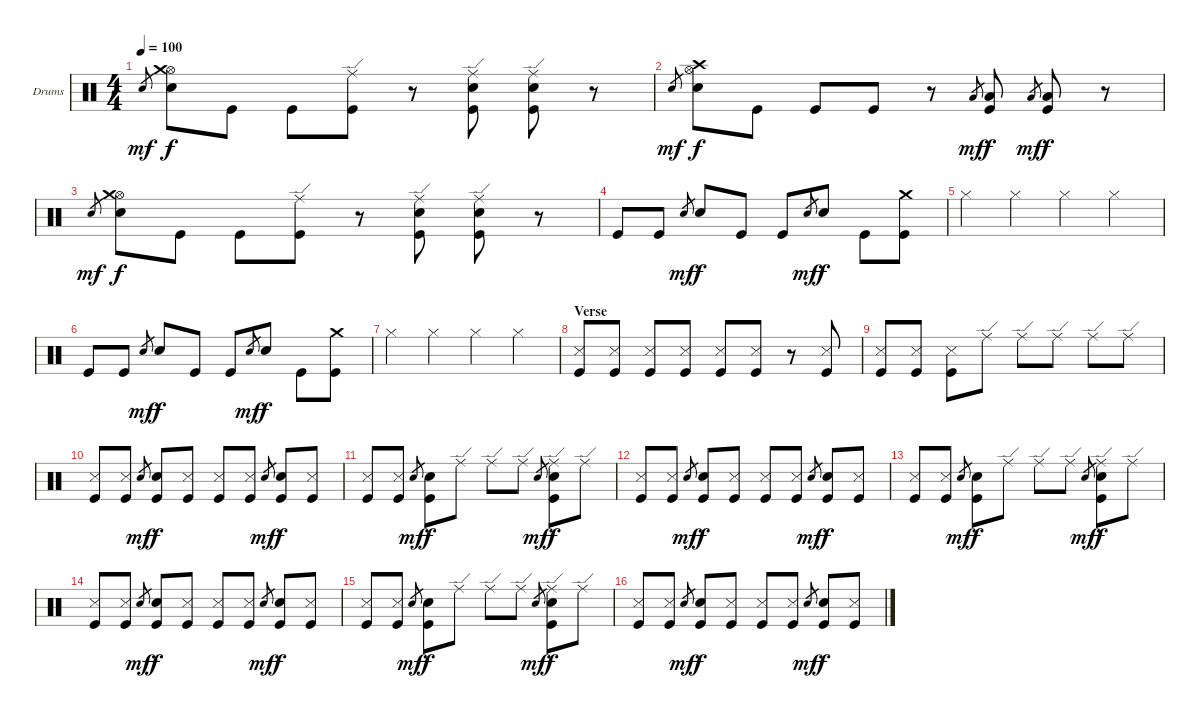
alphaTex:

\defaultSystemsLayout 4
\bracketExtendMode groupsimilarinstruments
\firstSystemTrackNameOrientation horizontal
\otherSystemsTrackNameOrientation horizontal
\track ("Drumkit" "Drums") {instrument percussion}
\staff {score}
\articulation defaults
\ts (4 4)
\tempo 100
\clef neutral
\scale
1.02648
\ks c "Snare (hit) 2".8{gr dy mf}
("Hi-Hat (open)" "Crash medium (hit)" "Snare (hit) 2").8{dy f} "Kick (hit)".8 "Kick (hit)".8 ("Ride (edge)" "Kick (hit)").8 r.8 ("Ride (edge)" "Snare (hit) 2" "Kick (hit)").8 ("Ride (edge)" "Snare (hit) 2" "Kick (hit)").8 r.8 |
\scale
0.973518 "Snare (hit) 2".8{gr dy mf} ("Hi-Hat (open)" "Crash high (hit)" "Snare (hit) 2").8{dy f} "Kick (hit)".8 "Kick (hit)".8 "Kick (hit)".8 r.8 "Low Tom (hit)".8{gr dy mf} ("Low Tom (hit)" "Kick (hit)").8{dy f} "Low Tom (hit)".8{gr dy mf} ("Low Tom (hit)" "Kick (hit)").8{dy f} r.8 |
\scale
1.02648 "Snare (hit) 2".8{gr dy mf} ("Hi-Hat (open)" "Crash medium (hit)" "Snare (hit) 2").8{dy f} "Kick (hit)".8 "Kick (hit)".8 ("Ride (edge)" "Kick (hit)").8 r.8 ("Ride (edge)" "Snare (hit) 2" "Kick (hit)").8 ("Ride (edge)" "Snare (hit) 2" "Kick (hit)").8 r.8 |
\scale
0.973518 "Kick (hit)".8 "Kick (hit)".8 "Snare (hit) 2".8{gr dy mf} "Snare (hit) 2".8{dy f} "Kick (hit)".8 "Kick (hit)".8 "Snare (hit) 2".8{gr dy mf} "Snare (hit) 2".8{dy f} "Kick (hit)".8 ("Crash medium (hit)" "Kick (hit)").8 |
\scale
1.02648 "Hi-Hat (closed)".4 "Hi-Hat (closed)".4 "Hi-Hat (closed)".4 "Hi-Hat (closed)".4 |
\scale
0.973518 "Kick (hit)".8 "Kick (hit)".8 "Snare (hit) 2".8{gr dy mf} "Snare (hit) 2".8{dy f} "Kick (hit)".8 "Kick (hit)".8 "Snare (hit) 2".8{gr dy mf} "Snare (hit) 2".8{dy f} "Kick (hit)".8 ("Crash medium (hit)" "Kick (hit)").8 |
\scale
1.02648 "Hi-Hat (closed)".4 "Hi-Hat (closed)".4 "Hi-Hat (closed)".4 "Hi-Hat (closed)".4 |
\section ("" "Verse")
\scale
0.973518 ("Snare (side stick) 3" "Kick (hit)").8 ("Snare (side stick) 3" "Kick (hit)").8 ("Snare (side stick) 3" "Kick (hit)").8 ("Snare (side stick) 3" "Kick (hit)").8 ("Snare (side stick) 3" "Kick (hit)").8 ("Snare (side stick) 3" "Kick (hit)").8 r.8 ("Snare (side stick) 3" "Kick (hit)").8 |
\scale
1.02648 ("Snare (side stick) 3" "Kick (hit)").8 ("Snare (side stick) 3" "Kick (hit)").8 ("Snare (side stick) 3" "Kick (hit)").8 "Ride (edge)".8 "Ride (edge)".8 "Ride (edge)".8 "Ride (edge)".8 "Ride (edge)".8 |
\scale
0.973518 ("Snare (side stick) 3" "Kick (hit)").8 ("Snare (side stick) 3" "Kick (hit)").8 "Snare (hit) 2".8{gr dy mf} ("Snare (hit) 2" "Kick (hit)").8{dy f} ("Snare (side stick) 3" "Kick (hit)").8 ("Snare (side stick) 3" "Kick (hit)").8 ("Snare (side stick) 3" "Kick (hit)").8 "Snare (hit) 2".8{gr dy mf} ("Snare (hit) 2" "Kick (hit)").8{dy f} ("Snare (side stick) 3" "Kick (hit)").8 |
\scale
1.02648 ("Snare (side stick) 3" "Kick (hit)").8 ("Snare (side stick) 3" "Kick (hit)").8 "Snare (hit) 2".8{gr dy mf} ("Snare (hit) 2" "Kick (hit)").8{dy f} "Ride (edge)".8 "Ride (edge)".8 "Ride (edge)".8 "Snare (hit) 2".8{gr dy mf} ("Ride (edge)" "Snare (hit) 2" "Kick (hit)").8{dy f} "Ride (edge)".8 |
\scale
0.973518 ("Snare (side stick) 3" "Kick (hit)").8 ("Snare (side stick) 3" "Kick (hit)").8 "Snare (hit) 2".8{gr dy mf} ("Snare (hit) 2" "Kick (hit)").8{dy f} ("Snare (side stick) 3" "Kick (hit)").8 ("Snare (side stick) 3" "Kick (hit)").8 ("Snare (side stick) 3" "Kick (hit)").8 "Snare (hit) 2".8{gr dy mf} ("Snare (hit) 2" "Kick (hit)").8{dy f} ("Snare (side stick) 3" "Kick (hit)").8 |
\scale
1.02648 ("Snare (side stick) 3" "Kick (hit)").8 ("Snare (side stick) 3" "Kick (hit)").8 "Snare (hit) 2".8{gr dy mf} ("Snare (hit) 2" "Kick (hit)").8{dy f} "Ride (edge)".8 "Ride (edge)".8 "Ride (edge)".8 "Snare (hit) 2".8{gr dy mf} ("Ride (edge)" "Snare (hit) 2" "Kick (hit)").8{dy f} "Ride (edge)".8 |
\scale
0.973518 ("Snare (side stick) 3" "Kick (hit)").8 ("Snare (side stick) 3" "Kick (hit)").8 "Snare (hit) 2".8{gr dy mf} ("Snare (hit) 2" "Kick (hit)").8{dy f} ("Snare (side stick) 3" "Kick (hit)").8 ("Snare (side stick) 3" "Kick (hit)").8 ("Snare (side stick) 3" "Kick (hit)").8 "Snare (hit) 2".8{gr dy mf} ("Snare (hit) 2" "Kick (hit)").8{dy f} ("Snare (side stick) 3" "Kick (hit)").8 |
\scale
1.02648 ("Snare (side stick) 3" "Kick (hit)").8 ("Snare (side stick) 3" "Kick (hit)").8 "Snare (hit) 2".8{gr dy mf} ("Snare (hit) 2" "Kick (hit)").8{dy f} "Ride (edge)".8 "Ride (edge)".8 "Ride (edge)".8 "Snare (hit) 2".8{gr dy mf} ("Ride (edge)" "Snare (hit) 2" "Kick (hit)").8{dy f} "Ride (edge)".8 |
\scale
0.973518 ("Snare (side stick) 3" "Kick (hit)").8 ("Snare (side stick) 3" "Kick (hit)").8 "Snare (hit) 2".8{gr dy mf} ("Snare (hit) 2" "Kick (hit)").8{dy f} ("Snare (side stick) 3" "Kick (hit)").8 ("Snare (side stick) 3" "Kick (hit)").8 ("Snare (side stick) 3" "Kick (hit)").8 "Snare (hit) 2".8{gr dy mf} ("Snare (hit) 2" "Kick (hit)").8{dy f} ("Snare (side stick) 3" "Kick (hit)").8
